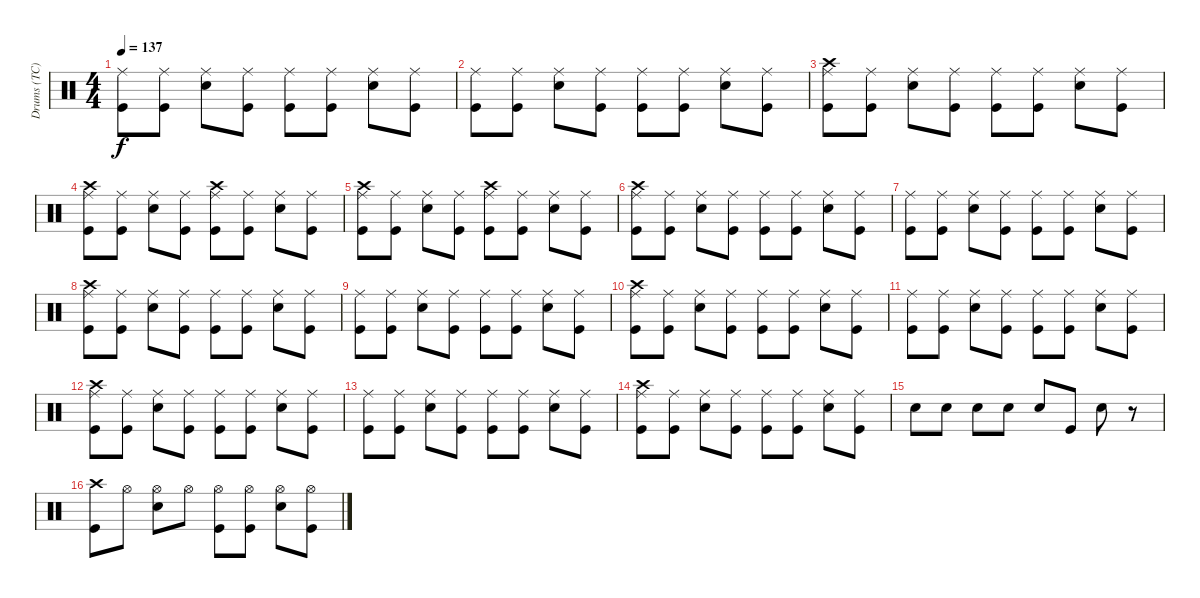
\track ("Drums (TC)" "Drums (TC)") {instrument percussion}
\staff {score}
\articulation defaults
\ts (4 4)
\tempo 137
\clef neutral
\ks c
("Ride (middle)" "Kick (hit)").8{dy f} ("Ride (middle)" "Kick (hit)").8 ("Snare (hit) 2" "Ride (middle)").8 ("Ride (middle)" "Kick (hit)").8 ("Ride (middle)" "Kick (hit)").8 ("Ride (middle)" "Kick (hit)").8 ("Snare (hit) 2" "Ride (middle)").8 ("Ride (middle)" "Kick (hit)").8 |
("Ride (middle)" "Kick (hit)").8 ("Ride (middle)" "Kick (hit)").8 ("Snare (hit) 2" "Ride (middle)").8 ("Ride (middle)" "Kick (hit)").8 ("Ride (middle)" "Kick (hit)").8 ("Ride (middle)" "Kick (hit)").8 ("Snare (hit) 2" "Ride (middle)").8 ("Ride (middle)" "Kick (hit)").8 |
("Crash high (hit)" "Ride (middle)" "Kick (hit)").8 ("Ride (middle)" "Kick (hit)").8 ("Snare (hit) 2" "Ride (middle)").8 ("Ride (middle)" "Kick (hit)").8 ("Ride (middle)" "Kick (hit)").8 ("Ride (middle)" "Kick (hit)").8 ("Snare (hit) 2" "Ride (middle)").8 ("Ride (middle)" "Kick (hit)").8 |
("Crash high (hit)" "Ride (middle)" "Kick (hit)").8 ("Ride (middle)" "Kick (hit)").8 ("Snare (hit) 2" "Ride (middle)").8 ("Ride (middle)" "Kick (hit)").8 ("Crash high (hit)" "Ride (middle)" "Kick (hit)").8 ("Ride (middle)" "Kick (hit)").8 ("Snare (hit) 2" "Ride (middle)").8 ("Ride (middle)" "Kick (hit)").8 |
("Crash high (hit)" "Ride (middle)" "Kick (hit)").8 ("Ride (middle)" "Kick (hit)").8 ("Snare (hit) 2" "Ride (middle)").8 ("Ride (middle)" "Kick (hit)").8 ("Crash high (hit)" "Ride (middle)" "Kick (hit)").8 ("Ride (middle)" "Kick (hit)").8 ("Snare (hit) 2" "Ride (middle)").8 ("Ride (middle)" "Kick (hit)").8 |
("Crash high (hit)" "Ride (middle)" "Kick (hit)").8 ("Ride (middle)" "Kick (hit)").8 ("Snare (hit) 2" "Ride (middle)").8 ("Ride (middle)" "Kick (hit)").8 ("Ride (middle)" "Kick (hit)").8 ("Ride (middle)" "Kick (hit)").8 ("Snare (hit) 2" "Ride (middle)").8 ("Ride (middle)" "Kick (hit)").8 |
("Ride (middle)" "Kick (hit)").8 ("Ride (middle)" "Kick (hit)").8 ("Snare (hit) 2" "Ride (middle)").8 ("Ride (middle)" "Kick (hit)").8 ("Ride (middle)" "Kick (hit)").8 ("Ride (middle)" "Kick (hit)").8 ("Snare (hit) 2" "Ride (middle)").8 ("Ride (middle)" "Kick (hit)").8 |
("Crash high (hit)" "Ride (middle)" "Kick (hit)").8 ("Ride (middle)" "Kick (hit)").8 ("Snare (hit) 2" "Ride (middle)").8 ("Ride (middle)" "Kick (hit)").8 ("Ride (middle)" "Kick (hit)").8 ("Ride (middle)" "Kick (hit)").8 ("Snare (hit) 2" "Ride (middle)").8 ("Ride (middle)" "Kick (hit)").8 |
("Ride (middle)" "Kick (hit)").8 ("Ride (middle)" "Kick (hit)").8 ("Snare (hit) 2" "Ride (middle)").8 ("Ride (middle)" "Kick (hit)").8 ("Ride (middle)" "Kick (hit)").8 ("Ride (middle)" "Kick (hit)").8 ("Snare (hit) 2" "Ride (middle)").8 ("Ride (middle)" "Kick (hit)").8 |
("Crash high (hit)" "Ride (middle)" "Kick (hit)").8 ("Ride (middle)" "Kick (hit)").8 ("Snare (hit) 2" "Ride (middle)").8 ("Ride (middle)" "Kick (hit)").8 ("Ride (middle)" "Kick (hit)").8 ("Ride (middle)" "Kick (hit)").8 ("Snare (hit) 2" "Ride (middle)").8 ("Ride (middle)" "Kick (hit)").8 |
("Ride (middle)" "Kick (hit)").8 ("Ride (middle)" "Kick (hit)").8 ("Snare (hit) 2" "Ride (middle)").8 ("Ride (middle)" "Kick (hit)").8 ("Ride (middle)" "Kick (hit)").8 ("Ride (middle)" "Kick (hit)").8 ("Snare (hit) 2" "Ride (middle)").8 ("Ride (middle)" "Kick (hit)").8 |
("Crash high (hit)" "Ride (middle)" "Kick (hit)").8 ("Ride (middle)" "Kick (hit)").8 ("Snare (hit) 2" "Ride (middle)").8 ("Ride (middle)" "Kick (hit)").8 ("Ride (middle)" "Kick (hit)").8 ("Ride (middle)" "Kick (hit)").8 ("Snare (hit) 2" "Ride (middle)").8 ("Ride (middle)" "Kick (hit)").8 |
("Ride (middle)" "Kick (hit)").8 ("Ride (middle)" "Kick (hit)").8 ("Snare (hit) 2" "Ride (middle)").8 ("Ride (middle)" "Kick (hit)").8 ("Ride (middle)" "Kick (hit)").8 ("Ride (middle)" "Kick (hit)").8 ("Snare (hit) 2" "Ride (middle)").8 ("Ride (middle)" "Kick (hit)").8 |
("Crash high (hit)" "Ride (middle)" "Kick (hit)").8 ("Ride (middle)" "Kick (hit)").8 ("Snare (hit) 2" "Ride (middle)").8 ("Ride (middle)" "Kick (hit)").8 ("Ride (middle)" "Kick (hit)").8 ("Ride (middle)" "Kick (hit)").8 ("Snare (hit) 2" "Ride (middle)").8 ("Ride (middle)" "Kick (hit)").8 |
"Snare (hit) 2".8 "Snare (hit) 2".8 "Snare (hit) 2".8 "Snare (hit) 2".8 "Snare (hit) 2".8 "Kick (hit)".8 "Snare (hit) 2".8 r.8 |
("Crash high (hit)" "Kick (hit)").8 "Hi-Hat (open)".8 ("Snare (hit) 2" "Hi-Hat (open)").8 "Hi-Hat (open)".8 ("Hi-Hat (open)" "Kick (hit)").8 ("Hi-Hat (open)" "Kick (hit)").8 ("Snare (hit) 2" "Hi-Hat (open)").8 ("Hi-Hat (open)" "Kick (hit)").8
